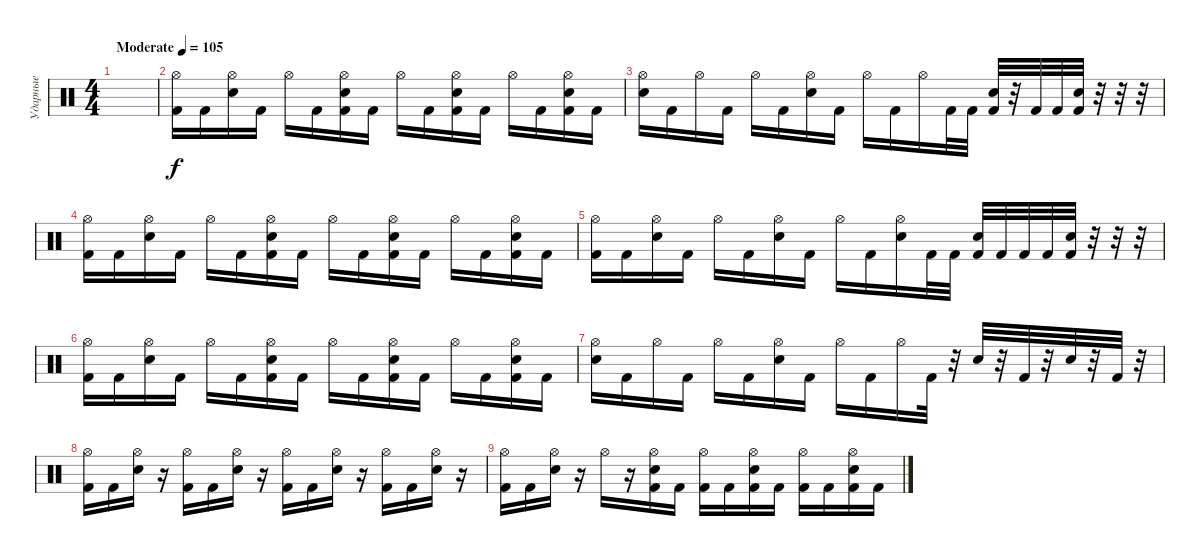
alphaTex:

\track ("Ударные" "Ударные") {instrument percussion}
\staff {score}
\articulation defaults
\ts (4 4)
\tempo (105 "Moderate")
\clef neutral
\ks c
|
("Hi-Hat (open)" "Kick (hit) 2").16 "Kick (hit) 2".16 ("Hi-Hat (open)" "Electric Snare (hit)").16 "Kick (hit) 2".16 "Hi-Hat (open)".16 "Kick (hit) 2".16 ("Hi-Hat (open)" "Electric Snare (hit)" "Kick (hit) 2").16 "Kick (hit) 2".16 "Hi-Hat (open)".16 "Kick (hit) 2".16 ("Hi-Hat (open)" "Electric Snare (hit)" "Kick (hit) 2").16 "Kick (hit) 2".16 "Hi-Hat (open)".16 "Kick (hit) 2".16 ("Hi-Hat (open)" "Electric Snare (hit)" "Kick (hit) 2").16 "Kick (hit) 2".16 |
("Hi-Hat (open)" "Electric Snare (hit)").16 "Kick (hit) 2".16 "Hi-Hat (open)".16 "Kick (hit) 2".16 "Hi-Hat (open)".16 "Kick (hit) 2".16 ("Hi-Hat (open)" "Electric Snare (hit)").16 "Kick (hit) 2".16 "Hi-Hat (open)".16 "Kick (hit) 2".16 "Hi-Hat (open)".16 "Kick (hit) 2".32 "Kick (hit) 2".32 ("Electric Snare (hit)" "Kick (hit) 2").32 r.32 "Kick (hit) 2".32 "Kick (hit) 2".32 ("Electric Snare (hit)" "Kick (hit) 2").32 r.32 r.32 r.32 |
("Hi-Hat (open)" "Kick (hit) 2").16 "Kick (hit) 2".16 ("Hi-Hat (open)" "Electric Snare (hit)").16 "Kick (hit) 2".16 "Hi-Hat (open)".16 "Kick (hit) 2".16 ("Hi-Hat (open)" "Electric Snare (hit)" "Kick (hit) 2").16 "Kick (hit) 2".16 "Hi-Hat (open)".16 "Kick (hit) 2".16 ("Hi-Hat (open)" "Electric Snare (hit)" "Kick (hit) 2").16 "Kick (hit) 2".16 "Hi-Hat (open)".16 "Kick (hit) 2".16 ("Hi-Hat (open)" "Electric Snare (hit)" "Kick (hit) 2").16 "Kick (hit) 2".16 |
("Hi-Hat (open)" "Kick (hit) 2").16 "Kick (hit) 2".16 ("Hi-Hat (open)" "Electric Snare (hit)").16 "Kick (hit) 2".16 "Hi-Hat (open)".16 "Kick (hit) 2".16 ("Hi-Hat (open)" "Electric Snare (hit)").16 "Kick (hit) 2".16 "Hi-Hat (open)".16 "Kick (hit) 2".16 ("Hi-Hat (open)" "Electric Snare (hit)").16 "Kick (hit) 2".32 "Kick (hit) 2".32 ("Electric Snare (hit)" "Kick (hit) 2").32 "Kick (hit) 2".32 "Kick (hit) 2".32 "Kick (hit) 2".32 ("Electric Snare (hit)" "Kick (hit) 2").32 r.32 r.32 r.32 |
("Hi-Hat (open)" "Kick (hit) 2").16 "Kick (hit) 2".16 ("Hi-Hat (open)" "Electric Snare (hit)").16 "Kick (hit) 2".16 "Hi-Hat (open)".16 "Kick (hit) 2".16 ("Hi-Hat (open)" "Electric Snare (hit)" "Kick (hit) 2").16 "Kick (hit) 2".16 "Hi-Hat (open)".16 "Kick (hit) 2".16 ("Hi-Hat (open)" "Electric Snare (hit)" "Kick (hit) 2").16 "Kick (hit) 2".16 "Hi-Hat (open)".16 "Kick (hit) 2".16 ("Hi-Hat (open)" "Electric Snare (hit)" "Kick (hit) 2").16 "Kick (hit) 2".16 |
("Hi-Hat (open)" "Electric Snare (hit)").16 "Kick (hit) 2".16 "Hi-Hat (open)".16 "Kick (hit) 2".16 "Hi-Hat (open)".16 "Kick (hit) 2".16 ("Hi-Hat (open)" "Electric Snare (hit)").16 "Kick (hit) 2".16 "Hi-Hat (open)".16 "Kick (hit) 2".16 "Hi-Hat (open)".16 "Kick (hit) 2".32 r.32 "Electric Snare (hit)".32 r.32 "Kick (hit) 2".32 r.32 "Electric Snare (hit)".32 r.32 "Kick (hit) 2".32 r.32 |
("Hi-Hat (open)" "Kick (hit) 2").16 "Kick (hit) 2".16 ("Hi-Hat (open)" "Electric Snare (hit)").16 r.16 ("Hi-Hat (open)" "Kick (hit) 2").16 "Kick (hit) 2".16 ("Hi-Hat (open)" "Electric Snare (hit)").16 r.16 ("Hi-Hat (open)" "Kick (hit) 2").16 "Kick (hit) 2".16 ("Hi-Hat (open)" "Electric Snare (hit)").16 r.16 ("Hi-Hat (open)" "Kick (hit) 2").16 "Kick (hit) 2".16 ("Hi-Hat (open)" "Electric Snare (hit)").16 r.16 |
("Hi-Hat (open)" "Kick (hit) 2").16 "Kick (hit) 2".16 ("Hi-Hat (open)" "Electric Snare (hit)").16 r.16 "Hi-Hat (open)".16 r.16 ("Hi-Hat (open)" "Electric Snare (hit)" "Kick (hit) 2").16 "Kick (hit) 2".16 ("Hi-Hat (open)" "Kick (hit) 2").16 "Kick (hit) 2".16 ("Hi-Hat (open)" "Electric Snare (hit)" "Kick (hit) 2").16 "Kick (hit) 2".16 ("Hi-Hat (open)" "Kick (hit) 2").16 "Kick (hit) 2".16 ("Hi-Hat (open)" "Electric Snare (hit)" "Kick (hit) 2").16 "Kick (hit) 2".16
